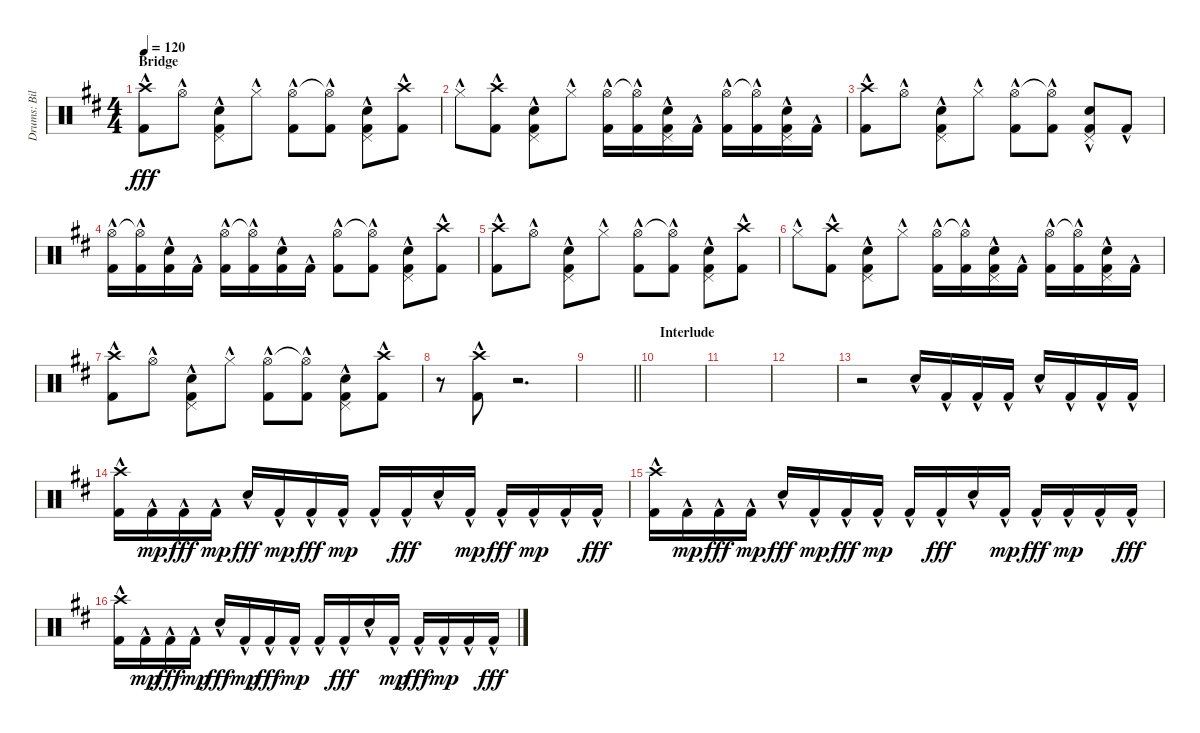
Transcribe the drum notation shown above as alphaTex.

\track ("Drums: Bill" "Drums: Bil") {instrument percussion}
\staff {score}
\articulation defaults
\ts (4 4)
\section ("" "Bridge")
\tempo 120
\clef neutral
\ks d
("Crash high (hit)"{hac} "Kick (hit) 2"{hac}).8{dy fff} "Hi-Hat (open)"{hac}.8 ("Pedal Hi-Hat (hit)"{hac} "Snare (hit) 2"{hac} "Kick (hit) 2"{hac}).8 "Hi-Hat (closed)"{hac}.8 ("Hi-Hat (open)"{hac} "Kick (hit) 2"{hac}).8 ("Hi-Hat (open)"{t} "Kick (hit) 2"{hac}).8 ("Pedal Hi-Hat (hit)"{hac} "Snare (hit) 2"{hac} "Kick (hit) 2"{hac}).8 ("Crash high (hit)"{hac} "Kick (hit) 2"{hac}).8 |
"Hi-Hat (closed)"{hac}.8 ("Crash high (hit)"{hac} "Kick (hit) 2"{hac}).8 ("Pedal Hi-Hat (hit)"{hac} "Snare (hit) 2"{hac} "Kick (hit) 2"{hac}).8 "Hi-Hat (closed)"{hac}.8 ("Hi-Hat (open)"{hac} "Kick (hit) 2"{hac}).16 ("Hi-Hat (open)"{t} "Kick (hit) 2"{hac}).16 ("Pedal Hi-Hat (hit)"{hac} "Snare (hit) 2"{hac} "Kick (hit) 2"{hac}).16 "Kick (hit) 2"{hac}.16 ("Hi-Hat (open)"{hac} "Kick (hit) 2"{hac}).16 ("Hi-Hat (open)"{t} "Kick (hit) 2"{hac}).16 ("Pedal Hi-Hat (hit)"{hac} "Snare (hit) 2"{hac} "Kick (hit) 2"{hac}).16 "Kick (hit) 2"{hac}.16 |
("Crash high (hit)"{hac} "Kick (hit) 2"{hac}).8 "Hi-Hat (open)"{hac}.8 ("Pedal Hi-Hat (hit)"{hac} "Snare (hit) 2"{hac} "Kick (hit) 2"{hac}).8 "Hi-Hat (closed)"{hac}.8 ("Hi-Hat (open)"{hac} "Kick (hit) 2"{hac}).8 ("Hi-Hat (open)"{t} "Kick (hit) 2"{hac}).8 ("Pedal Hi-Hat (hit)"{hac} "Snare (hit) 2"{hac} "Kick (hit) 2"{hac}).8 "Kick (hit) 2"{hac}.8 |
("Hi-Hat (open)"{hac} "Kick (hit) 2"{hac}).16 ("Hi-Hat (open)"{t} "Kick (hit) 2"{hac}).16 ("Snare (hit) 2"{hac} "Kick (hit) 2"{hac}).16 "Kick (hit) 2"{hac}.16 ("Hi-Hat (open)"{hac} "Kick (hit) 2"{hac}).16 ("Hi-Hat (open)"{t} "Kick (hit) 2"{hac}).16 ("Snare (hit) 2"{hac} "Kick (hit) 2"{hac}).16 "Kick (hit) 2"{hac}.16 ("Hi-Hat (open)"{hac} "Kick (hit) 2"{hac}).8 ("Hi-Hat (open)"{t} "Kick (hit) 2"{hac}).8 ("Pedal Hi-Hat (hit)"{hac} "Snare (hit) 2"{hac} "Kick (hit) 2"{hac}).8 ("Crash high (hit)"{hac} "Kick (hit) 2"{hac}).8 |
("Crash high (hit)"{hac} "Kick (hit) 2"{hac}).8 "Hi-Hat (open)"{hac}.8 ("Pedal Hi-Hat (hit)"{hac} "Snare (hit) 2"{hac} "Kick (hit) 2"{hac}).8 "Hi-Hat (closed)"{hac}.8 ("Hi-Hat (open)"{hac} "Kick (hit) 2"{hac}).8 ("Hi-Hat (open)"{t} "Kick (hit) 2"{hac}).8 ("Pedal Hi-Hat (hit)"{hac} "Snare (hit) 2"{hac} "Kick (hit) 2"{hac}).8 ("Crash high (hit)"{hac} "Kick (hit) 2"{hac}).8 |
"Hi-Hat (closed)"{hac}.8 ("Crash high (hit)"{hac} "Kick (hit) 2"{hac}).8 ("Pedal Hi-Hat (hit)"{hac} "Snare (hit) 2"{hac} "Kick (hit) 2"{hac}).8 "Hi-Hat (closed)"{hac}.8 ("Hi-Hat (open)"{hac} "Kick (hit) 2"{hac}).16 ("Hi-Hat (open)"{t} "Kick (hit) 2"{hac}).16 ("Pedal Hi-Hat (hit)"{hac} "Snare (hit) 2"{hac} "Kick (hit) 2"{hac}).16 "Kick (hit) 2"{hac}.16 ("Hi-Hat (open)"{hac} "Kick (hit) 2"{hac}).16 ("Hi-Hat (open)"{t} "Kick (hit) 2"{hac}).16 ("Pedal Hi-Hat (hit)"{hac} "Snare (hit) 2"{hac} "Kick (hit) 2"{hac}).16 "Kick (hit) 2"{hac}.16 |
("Crash high (hit)"{hac} "Kick (hit) 2"{hac}).8 "Hi-Hat (open)"{hac}.8 ("Pedal Hi-Hat (hit)"{hac} "Snare (hit) 2"{hac} "Kick (hit) 2"{hac}).8 "Hi-Hat (closed)"{hac}.8 ("Hi-Hat (open)"{hac} "Kick (hit) 2"{hac}).8 ("Hi-Hat (open)"{t} "Kick (hit) 2"{hac}).8 ("Pedal Hi-Hat (hit)"{hac} "Snare (hit) 2"{hac} "Kick (hit) 2"{hac}).8 ("Crash high (hit)"{hac} "Kick (hit) 2"{hac}).8 |
r.8 ("Crash high (hit)"{hac} "Kick (hit) 2"{hac}).8 r.2{d} |
\barLineRight lightlight
|
\section ("" "Interlude")
|
|
|
r.2 "Snare (hit) 2"{hac}.16 "Kick (hit) 2"{hac}.16 "Kick (hit) 2"{hac}.16 "Kick (hit) 2"{hac}.16 "Snare (hit) 2"{hac}.16 "Kick (hit) 2"{hac}.16 "Kick (hit) 2"{hac}.16 "Kick (hit) 2"{hac}.16 |
("Crash high (hit)"{hac} "Kick (hit) 2"{hac}).16 "Kick (hit) 2"{hac}.16{dy mp} "Kick (hit) 2"{hac}.16{dy fff} "Kick (hit) 2"{hac}.16{dy mp} "Snare (hit) 2"{hac}.16{dy fff} "Kick (hit) 2"{hac}.16{dy mp} "Kick (hit) 2"{hac}.16{dy fff} "Kick (hit) 2"{hac}.16{dy mp} "Kick (hit) 2"{hac}.16 "Kick (hit) 2"{hac}.16{dy fff} "Snare (hit) 2"{hac}.16 "Kick (hit) 2"{hac}.16{dy mp} "Kick (hit) 2"{hac}.16{dy fff} "Kick (hit) 2"{hac}.16{dy mp} "Kick (hit) 2"{hac}.16 "Kick (hit) 2"{hac}.16{dy fff} |
("Crash high (hit)"{hac} "Kick (hit) 2"{hac}).16 "Kick (hit) 2"{hac}.16{dy mp} "Kick (hit) 2"{hac}.16{dy fff} "Kick (hit) 2"{hac}.16{dy mp} "Snare (hit) 2"{hac}.16{dy fff} "Kick (hit) 2"{hac}.16{dy mp} "Kick (hit) 2"{hac}.16{dy fff} "Kick (hit) 2"{hac}.16{dy mp} "Kick (hit) 2"{hac}.16 "Kick (hit) 2"{hac}.16{dy fff} "Snare (hit) 2"{hac}.16 "Kick (hit) 2"{hac}.16{dy mp} "Kick (hit) 2"{hac}.16{dy fff} "Kick (hit) 2"{hac}.16{dy mp} "Kick (hit) 2"{hac}.16 "Kick (hit) 2"{hac}.16{dy fff} |
("Crash high (hit)"{hac} "Kick (hit) 2"{hac}).16 "Kick (hit) 2"{hac}.16{dy mp} "Kick (hit) 2"{hac}.16{dy fff} "Kick (hit) 2"{hac}.16{dy mp} "Snare (hit) 2"{hac}.16{dy fff} "Kick (hit) 2"{hac}.16{dy mp} "Kick (hit) 2"{hac}.16{dy fff} "Kick (hit) 2"{hac}.16{dy mp} "Kick (hit) 2"{hac}.16 "Kick (hit) 2"{hac}.16{dy fff} "Snare (hit) 2"{hac}.16 "Kick (hit) 2"{hac}.16{dy mp} "Kick (hit) 2"{hac}.16{dy fff} "Kick (hit) 2"{hac}.16{dy mp} "Kick (hit) 2"{hac}.16 "Kick (hit) 2"{hac}.16{dy fff}
